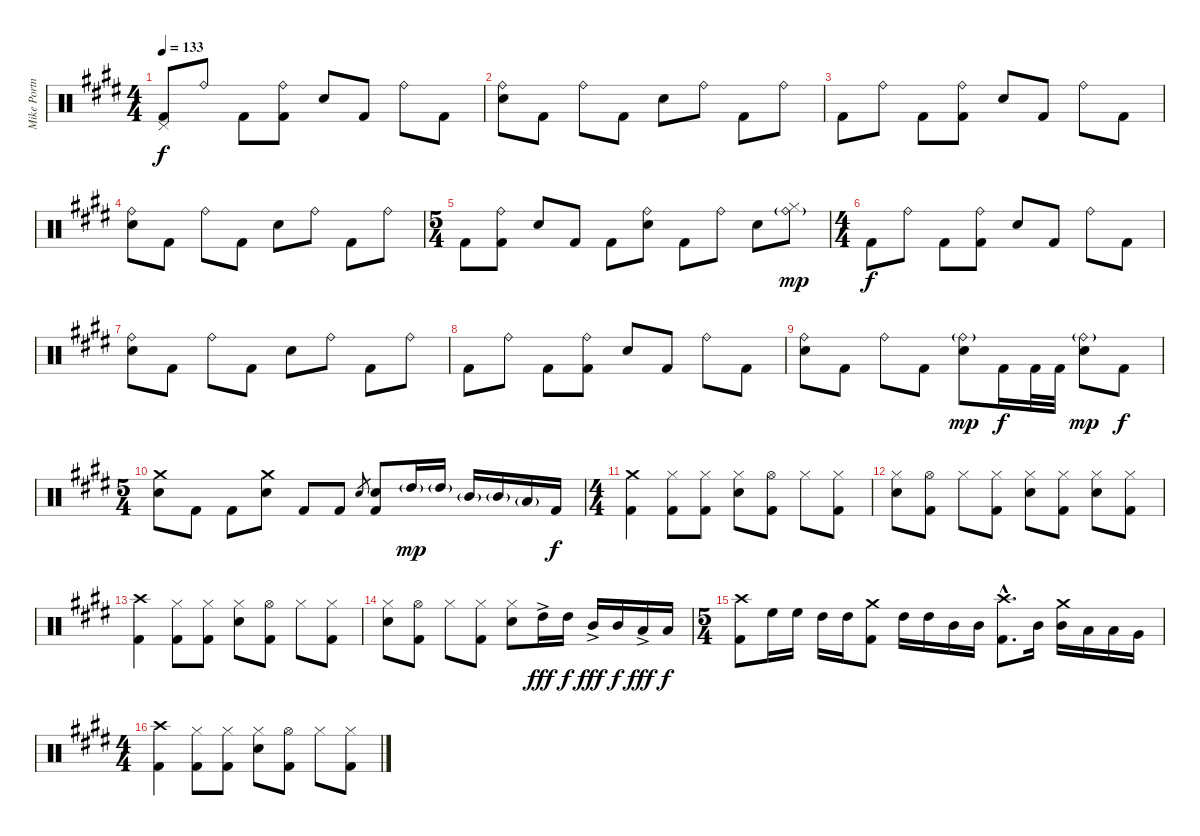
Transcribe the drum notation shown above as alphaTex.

\track ("Mike Portnoy" "Mike Portn") {instrument percussion}
\staff {score}
\articulation defaults
\ts (4 4)
\tempo 133
\clef neutral
\ks e
("Pedal Hi-Hat (hit)" "Kick (hit) 2").8{dy f} "Ride (bell)".8 "Kick (hit) 2".8 ("Ride (bell)" "Kick (hit) 2").8 "Snare (hit) 2".8 "Kick (hit) 2".8 "Ride (bell)".8 "Kick (hit) 2".8 |
("Ride (bell)" "Snare (hit) 2").8 "Kick (hit) 2".8 "Ride (bell)".8 "Kick (hit) 2".8 "Snare (hit) 2".8 "Ride (bell)".8 "Kick (hit) 2".8 "Ride (bell)".8 |
"Kick (hit) 2".8 "Ride (bell)".8 "Kick (hit) 2".8 ("Ride (bell)" "Kick (hit) 2").8 "Snare (hit) 2".8 "Kick (hit) 2".8 "Ride (bell)".8 "Kick (hit) 2".8 |
("Ride (bell)" "Snare (hit) 2").8 "Kick (hit) 2".8 "Ride (bell)".8 "Kick (hit) 2".8 "Snare (hit) 2".8 "Ride (bell)".8 "Kick (hit) 2".8 "Ride (bell)".8 |
\ts (5 4)
"Kick (hit) 2".8 ("Ride (bell)" "Kick (hit) 2").8 "Snare (hit) 2".8 "Kick (hit) 2".8 "Kick (hit) 2".8 ("Ride (bell)" "Snare (hit) 2").8 "Kick (hit) 2".8 "Ride (bell)".8 "Snare (hit) 2".8 ("Hi-Hat (closed)" "Ride (bell)"{g}).8{dy mp} |
\ts (4 4)
"Kick (hit) 2".8{dy f} "Ride (bell)".8 "Kick (hit) 2".8 ("Ride (bell)" "Kick (hit) 2").8 "Snare (hit) 2".8 "Kick (hit) 2".8 "Ride (bell)".8 "Kick (hit) 2".8 |
("Ride (bell)" "Snare (hit) 2").8 "Kick (hit) 2".8 "Ride (bell)".8 "Kick (hit) 2".8 "Snare (hit) 2".8 "Ride (bell)".8 "Kick (hit) 2".8 "Ride (bell)".8 |
"Kick (hit) 2".8 "Ride (bell)".8 "Kick (hit) 2".8 ("Ride (bell)" "Kick (hit) 2").8 "Snare (hit) 2".8 "Kick (hit) 2".8 "Ride (bell)".8 "Kick (hit) 2".8 |
("Ride (bell)" "Snare (hit) 2").8 "Kick (hit) 2".8 "Ride (bell)".8 "Kick (hit) 2".8 ("Ride (bell)"{g} "Snare (hit) 2").8{dy mp} "Kick (hit) 2".16{dy f} "Kick (hit) 2".32 "Kick (hit) 2".32 ("Ride (bell)"{g} "Snare (hit) 2").8{dy mp} "Kick (hit) 2".8{dy f} |
\ts (5 4)
("Crash medium (hit)" "Snare (hit) 2").8 "Kick (hit) 2".8 "Kick (hit) 2".8 ("Crash medium (hit)" "Snare (hit) 2").8 "Kick (hit) 2".8 "Kick (hit) 2".8 "Snare (hit) 2".8{gr} ("Snare (hit) 2" "Kick (hit) 2").8 "High Tom (hit)"{g}.16{dy mp} "High Tom (hit)"{g}.16 "Mid Tom (hit)"{g}.16 "Mid Tom (hit)"{g}.16 "Low Tom (hit)"{g}.16 "Kick (hit) 2".16{dy f} |
\ts (4 4)
("Crash medium (hit)" "Kick (hit) 2").4 ("Hi-Hat (closed)" "Kick (hit) 2").8 ("Hi-Hat (closed)" "Kick (hit) 2").8 ("Hi-Hat (closed)" "Snare (hit) 2").8 ("Hi-Hat (open)" "Kick (hit) 2").8 "Hi-Hat (closed)".8 ("Hi-Hat (closed)" "Kick (hit) 2").8 |
("Hi-Hat (closed)" "Snare (hit) 2").8 ("Hi-Hat (open)" "Kick (hit) 2").8 "Hi-Hat (closed)".8 ("Hi-Hat (closed)" "Kick (hit) 2").8 ("Hi-Hat (closed)" "Snare (hit) 2").8 ("Hi-Hat (closed)" "Kick (hit) 2").8 ("Hi-Hat (closed)" "Snare (hit) 2").8 ("Hi-Hat (closed)" "Kick (hit) 2").8 |
("Crash high (hit)" "Kick (hit) 2").4 ("Hi-Hat (closed)" "Kick (hit) 2").8 ("Hi-Hat (closed)" "Kick (hit) 2").8 ("Hi-Hat (closed)" "Snare (hit) 2").8 ("Hi-Hat (open)" "Kick (hit) 2").8 "Hi-Hat (closed)".8 ("Hi-Hat (closed)" "Kick (hit) 2").8 |
("Hi-Hat (closed)" "Snare (hit) 2").8 ("Hi-Hat (open)" "Kick (hit) 2").8 "Hi-Hat (closed)".8 ("Hi-Hat (closed)" "Kick (hit) 2").8 ("Hi-Hat (closed)" "Snare (hit) 2").8 "High Tom (hit)"{ac}.16{dy fff} "High Tom (hit)".16{dy f} "Mid Tom (hit)"{ac}.16{dy fff} "Mid Tom (hit)".16{dy f} "Low Tom (hit)"{ac}.16{dy fff} "Low Tom (hit)".16{dy f} |
\ts (5 4)
("Crash high (hit)" "Kick (hit) 2").8 "High Floor Tom (hit)".16 "High Floor Tom (hit)".16 "High Tom (hit)".16 "High Tom (hit)".16 ("Crash medium (hit)" "Kick (hit) 2").8 "High Tom (hit)".16 "High Tom (hit)".16 "Mid Tom (hit)".16 "Mid Tom (hit)".16 ("Crash high (hit)"{hac} "Kick (hit) 2"{hac}).8{d} "Mid Tom (hit)".16 ("Crash medium (hit)" "Mid Tom (hit)").16 "Low Tom (hit)".16 "Low Tom (hit)".16 "Very Low Tom (hit)".16 |
\ts (4 4)
("Crash high (hit)" "Kick (hit) 2").4 ("Hi-Hat (closed)" "Kick (hit) 2").8 ("Hi-Hat (closed)" "Kick (hit) 2").8 ("Hi-Hat (closed)" "Snare (hit) 2").8 ("Hi-Hat (open)" "Kick (hit) 2").8 "Hi-Hat (closed)".8 ("Hi-Hat (closed)" "Kick (hit) 2").8
